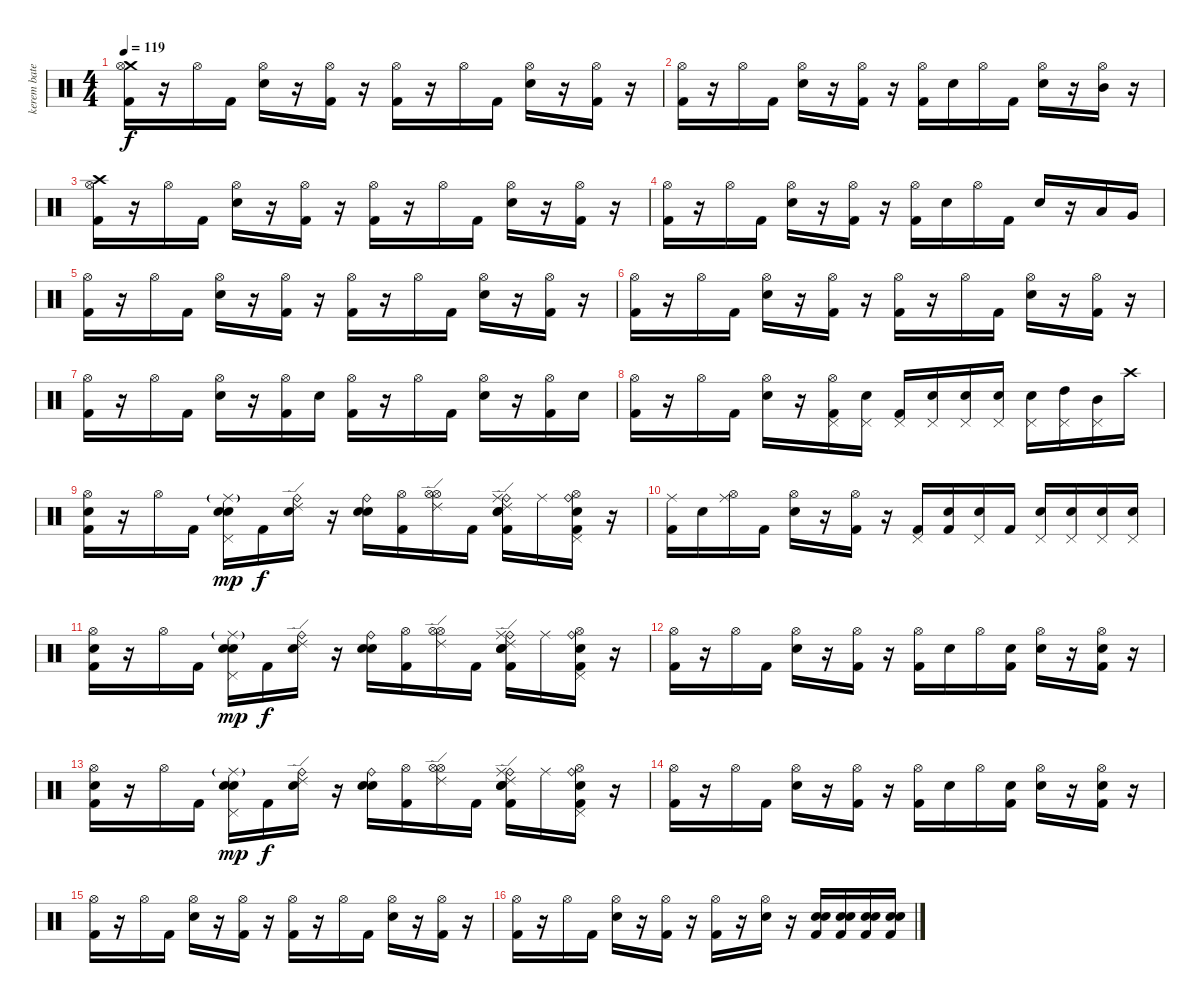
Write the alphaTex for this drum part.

\track ("kerem bateri" "kerem bate") {instrument percussion}
\staff {score}
\articulation defaults
\ts (4 4)
\tempo 119
\clef neutral
\ks c
("Crash medium (hit)" "Kick (hit) 2" "Hi-Hat (open)").16{dy f} r.16 "Hi-Hat (open)".16 "Kick (hit) 2".16 ("Electric Snare (hit)" "Hi-Hat (open)").16 r.16 ("Kick (hit) 2" "Hi-Hat (open)").16 r.16 ("Kick (hit) 2" "Hi-Hat (open)").16 r.16 "Hi-Hat (open)".16 "Kick (hit) 2".16 ("Electric Snare (hit)" "Hi-Hat (open)").16 r.16 ("Kick (hit) 2" "Hi-Hat (open)").16 r.16 |
("Kick (hit) 2" "Hi-Hat (open)").16 r.16 "Hi-Hat (open)".16 "Kick (hit) 2".16 ("Electric Snare (hit)" "Hi-Hat (open)").16 r.16 ("Kick (hit) 2" "Hi-Hat (open)").16 r.16 ("Kick (hit) 2" "Hi-Hat (open)").16 "Electric Snare (hit)".16 "Hi-Hat (open)".16 "Kick (hit) 2".16 ("Electric Snare (hit)" "Hi-Hat (open)").16 r.16 ("Mid Tom (hit)" "Hi-Hat (open)").16 r.16 |
("Crash high (hit)" "Kick (hit) 2" "Hi-Hat (open)").16 r.16 "Hi-Hat (open)".16 "Kick (hit) 2".16 ("Electric Snare (hit)" "Hi-Hat (open)").16 r.16 ("Kick (hit) 2" "Hi-Hat (open)").16 r.16 ("Kick (hit) 2" "Hi-Hat (open)").16 r.16 "Hi-Hat (open)".16 "Kick (hit) 2".16 ("Electric Snare (hit)" "Hi-Hat (open)").16 r.16 ("Kick (hit) 2" "Hi-Hat (open)").16 r.16 |
("Kick (hit) 2" "Hi-Hat (open)").16 r.16 "Hi-Hat (open)".16 "Kick (hit) 2".16 ("Electric Snare (hit)" "Hi-Hat (open)").16 r.16 ("Kick (hit) 2" "Hi-Hat (open)").16 r.16 ("Kick (hit) 2" "Hi-Hat (open)").16 "Electric Snare (hit)".16 "Hi-Hat (open)".16 "Kick (hit) 2".16 "Electric Snare (hit)".16 r.16 "Low Tom (hit)".16 "Very Low Tom (hit)".16 |
("Kick (hit) 2" "Hi-Hat (open)").16 r.16 "Hi-Hat (open)".16 "Kick (hit) 2".16 ("Electric Snare (hit)" "Hi-Hat (open)").16 r.16 ("Kick (hit) 2" "Hi-Hat (open)").16 r.16 ("Kick (hit) 2" "Hi-Hat (open)").16 r.16 "Hi-Hat (open)".16 "Kick (hit) 2".16 ("Electric Snare (hit)" "Hi-Hat (open)").16 r.16 ("Kick (hit) 2" "Hi-Hat (open)").16 r.16 |
("Kick (hit) 2" "Hi-Hat (open)").16 r.16 "Hi-Hat (open)".16 "Kick (hit) 2".16 ("Electric Snare (hit)" "Hi-Hat (open)").16 r.16 ("Kick (hit) 2" "Hi-Hat (open)").16 r.16 ("Kick (hit) 2" "Hi-Hat (open)").16 r.16 "Hi-Hat (open)".16 "Kick (hit) 2".16 ("Electric Snare (hit)" "Hi-Hat (open)").16 r.16 ("Kick (hit) 2" "Hi-Hat (open)").16 r.16 |
("Kick (hit) 2" "Hi-Hat (open)").16 r.16 "Hi-Hat (open)".16 "Kick (hit) 2".16 ("Electric Snare (hit)" "Hi-Hat (open)").16 r.16 ("Kick (hit) 2" "Hi-Hat (open)").16 "Electric Snare (hit)".16 ("Kick (hit) 2" "Hi-Hat (open)").16 r.16 "Hi-Hat (open)".16 "Kick (hit) 2".16 ("Electric Snare (hit)" "Hi-Hat (open)").16 r.16 ("Kick (hit) 2" "Hi-Hat (open)").16 "Electric Snare (hit)".16 |
("Kick (hit) 2" "Hi-Hat (open)").16 r.16 "Hi-Hat (open)".16 "Kick (hit) 2".16 ("Electric Snare (hit)" "Hi-Hat (open)").16 r.16 ("Pedal Hi-Hat (hit)" "Kick (hit) 2" "Hi-Hat (open)").16 ("Pedal Hi-Hat (hit)" "Electric Snare (hit)").16 ("Pedal Hi-Hat (hit)" "Kick (hit) 2").16 ("Pedal Hi-Hat (hit)" "Electric Snare (hit)").16 ("Pedal Hi-Hat (hit)" "Electric Snare (hit)").16 ("Pedal Hi-Hat (hit)" "Electric Snare (hit)").16 ("Pedal Hi-Hat (hit)" "Electric Snare (hit)").16 ("Pedal Hi-Hat (hit)" "High Tom (hit)").16 ("Pedal Hi-Hat (hit)" "Mid Tom (hit)").16 "Crash high (hit)".16 |
("Hi-Hat (open)" "Snare (hit) 2" "Kick (hit) 2").16 r.16 "Hi-Hat (open)".16 "Kick (hit) 2".16 ("Snare (hit) 2" "Electric Snare (hit)" "Ride (middle)"{g} "Pedal Hi-Hat (hit)").16{dy mp} "Kick (hit) 2".16{dy f} ("Ride (bell)" "Snare (hit) 2" "Ride (edge) 2").16 r.16 ("Ride (bell)" "Snare (hit) 2" "Snare (hit) 2").16 ("Kick (hit) 2" "Hi-Hat (open)").16 ("Hi-Hat (open)" "Hi-Hat (open)" "Ride (edge) 2").16 "Kick (hit) 2".16 ("Ride (bell)" "Ride (middle)" "Electric Snare (hit)" "Kick (hit) 2" "Snare (hit) 2" "Ride (edge) 2").16 "Ride (middle)".16 ("Ride (bell)" "Hi-Hat (open)" "Snare (hit) 2" "Pedal Hi-Hat (hit)" "Kick (hit) 2").16 r.16 |
("Ride (middle)" "Kick (hit) 2").16 "Electric Snare (hit)".16 ("Ride (middle)" "Hi-Hat (open)").16 "Kick (hit) 2".16 ("Electric Snare (hit)" "Hi-Hat (open)").16 r.16 ("Kick (hit) 2" "Hi-Hat (open)").16 r.16 ("Kick (hit) 2" "Pedal Hi-Hat (hit)").16 ("Kick (hit) 2" "Electric Snare (hit)").16 ("Electric Snare (hit)" "Pedal Hi-Hat (hit)").16 "Kick (hit) 2".16 ("Electric Snare (hit)" "Pedal Hi-Hat (hit)").16 ("Electric Snare (hit)" "Pedal Hi-Hat (hit)").16 ("Electric Snare (hit)" "Pedal Hi-Hat (hit)").16 ("Electric Snare (hit)" "Pedal Hi-Hat (hit)").16 |
("Hi-Hat (open)" "Snare (hit) 2" "Kick (hit) 2").16 r.16 "Hi-Hat (open)".16 "Kick (hit) 2".16 ("Snare (hit) 2" "Electric Snare (hit)" "Ride (middle)"{g} "Pedal Hi-Hat (hit)").16{dy mp} "Kick (hit) 2".16{dy f} ("Ride (bell)" "Snare (hit) 2" "Ride (edge) 2").16 r.16 ("Ride (bell)" "Snare (hit) 2" "Snare (hit) 2").16 ("Kick (hit) 2" "Hi-Hat (open)").16 ("Hi-Hat (open)" "Hi-Hat (open)" "Ride (edge) 2").16 "Kick (hit) 2".16 ("Ride (bell)" "Ride (middle)" "Electric Snare (hit)" "Kick (hit) 2" "Snare (hit) 2" "Ride (edge) 2").16 "Ride (middle)".16 ("Ride (bell)" "Hi-Hat (open)" "Snare (hit) 2" "Pedal Hi-Hat (hit)" "Kick (hit) 2").16 r.16 |
("Kick (hit) 2" "Hi-Hat (open)").16 r.16 "Hi-Hat (open)".16 "Kick (hit) 2".16 ("Electric Snare (hit)" "Hi-Hat (open)").16 r.16 ("Kick (hit) 2" "Hi-Hat (open)").16 r.16 ("Kick (hit) 2" "Hi-Hat (open)").16 "Electric Snare (hit)".16 "Hi-Hat (open)".16 ("Snare (hit) 2" "Kick (hit) 2").16 ("Electric Snare (hit)" "Hi-Hat (open)").16 r.16 ("Snare (hit) 2" "Kick (hit) 2" "Hi-Hat (open)").16 r.16 |
("Hi-Hat (open)" "Snare (hit) 2" "Kick (hit) 2").16 r.16 "Hi-Hat (open)".16 "Kick (hit) 2".16 ("Snare (hit) 2" "Electric Snare (hit)" "Ride (middle)"{g} "Pedal Hi-Hat (hit)").16{dy mp} "Kick (hit) 2".16{dy f} ("Ride (bell)" "Snare (hit) 2" "Ride (edge) 2").16 r.16 ("Ride (bell)" "Snare (hit) 2" "Snare (hit) 2").16 ("Kick (hit) 2" "Hi-Hat (open)").16 ("Hi-Hat (open)" "Hi-Hat (open)" "Ride (edge) 2").16 "Kick (hit) 2".16 ("Ride (bell)" "Ride (middle)" "Electric Snare (hit)" "Kick (hit) 2" "Snare (hit) 2" "Ride (edge) 2").16 "Ride (middle)".16 ("Ride (bell)" "Hi-Hat (open)" "Snare (hit) 2" "Pedal Hi-Hat (hit)" "Kick (hit) 2").16 r.16 |
("Kick (hit) 2" "Hi-Hat (open)").16 r.16 "Hi-Hat (open)".16 "Kick (hit) 2".16 ("Electric Snare (hit)" "Hi-Hat (open)").16 r.16 ("Kick (hit) 2" "Hi-Hat (open)").16 r.16 ("Kick (hit) 2" "Hi-Hat (open)").16 "Electric Snare (hit)".16 "Hi-Hat (open)".16 ("Snare (hit) 2" "Kick (hit) 2").16 ("Electric Snare (hit)" "Hi-Hat (open)").16 r.16 ("Snare (hit) 2" "Kick (hit) 2" "Hi-Hat (open)").16 r.16 |
("Kick (hit) 2" "Hi-Hat (open)").16 r.16 "Hi-Hat (open)".16 "Kick (hit) 2".16 ("Electric Snare (hit)" "Hi-Hat (open)").16 r.16 ("Kick (hit) 2" "Hi-Hat (open)").16 r.16 ("Kick (hit) 2" "Hi-Hat (open)").16 r.16 "Hi-Hat (open)".16 "Kick (hit) 2".16 ("Electric Snare (hit)" "Hi-Hat (open)").16 r.16 ("Kick (hit) 2" "Hi-Hat (open)").16 r.16 |
("Kick (hit) 2" "Hi-Hat (open)").16 r.16 "Hi-Hat (open)".16 "Kick (hit) 2".16 ("Electric Snare (hit)" "Hi-Hat (open)").16 r.16 ("Kick (hit) 2" "Hi-Hat (open)").16 r.16 ("Kick (hit) 2" "Hi-Hat (open)").16 r.16 ("Electric Snare (hit)" "Hi-Hat (open)").16 r.16 ("Snare (hit) 2" "Electric Snare (hit)" "Kick (hit) 2").16 ("Snare (hit) 2" "Electric Snare (hit)" "Kick (hit) 2").16 ("Snare (hit) 2" "Electric Snare (hit)" "Kick (hit) 2").16 ("Snare (hit) 2" "Electric Snare (hit)" "Kick (hit) 2").16
